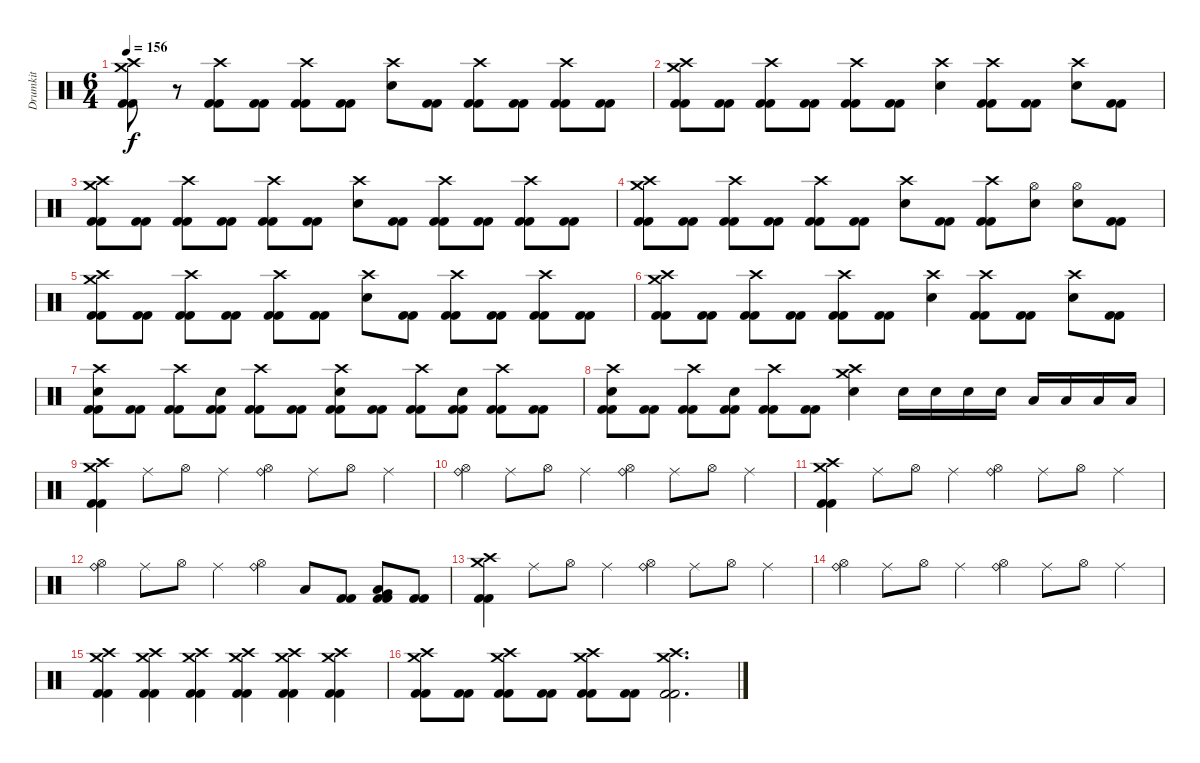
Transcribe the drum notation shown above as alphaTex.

\track ("Drumkit" "Drumkit") {instrument percussion bank 210}
\staff {score}
\articulation defaults
\ts (6 4)
\tempo 156
\clef neutral
\ks c
("Crash medium (hit)" "Crash high (hit)" "Kick (hit) 2" "Kick (hit) 2").8{dy f} r.8 ("Crash high (hit)" "Kick (hit) 2" "Kick (hit) 2").8 ("Kick (hit) 2" "Kick (hit) 2").8 ("Crash high (hit)" "Kick (hit) 2" "Kick (hit) 2").8 ("Kick (hit) 2" "Kick (hit) 2").8 ("Crash high (hit)" "Electric Snare (hit)").8 ("Kick (hit) 2" "Kick (hit) 2").8 ("Crash high (hit)" "Kick (hit) 2" "Kick (hit) 2").8 ("Kick (hit) 2" "Kick (hit) 2").8 ("Crash high (hit)" "Kick (hit) 2" "Kick (hit) 2").8 ("Kick (hit) 2" "Kick (hit) 2").8 |
("Crash medium (hit)" "Crash high (hit)" "Kick (hit) 2" "Kick (hit) 2").8 ("Kick (hit) 2" "Kick (hit) 2").8 ("Crash high (hit)" "Kick (hit) 2" "Kick (hit) 2").8 ("Kick (hit) 2" "Kick (hit) 2").8 ("Crash high (hit)" "Kick (hit) 2" "Kick (hit) 2").8 ("Kick (hit) 2" "Kick (hit) 2").8 ("Crash high (hit)" "Electric Snare (hit)").4 ("Crash high (hit)" "Kick (hit) 2" "Kick (hit) 2").8 ("Kick (hit) 2" "Kick (hit) 2").8 ("Crash high (hit)" "Electric Snare (hit)").8 ("Kick (hit) 2" "Kick (hit) 2").8 |
("Crash medium (hit)" "Crash high (hit)" "Kick (hit) 2" "Kick (hit) 2").8 ("Kick (hit) 2" "Kick (hit) 2").8 ("Crash high (hit)" "Kick (hit) 2" "Kick (hit) 2").8 ("Kick (hit) 2" "Kick (hit) 2").8 ("Crash high (hit)" "Kick (hit) 2" "Kick (hit) 2").8 ("Kick (hit) 2" "Kick (hit) 2").8 ("Crash high (hit)" "Electric Snare (hit)").8 ("Kick (hit) 2" "Kick (hit) 2").8 ("Crash high (hit)" "Kick (hit) 2" "Kick (hit) 2").8 ("Kick (hit) 2" "Kick (hit) 2").8 ("Crash high (hit)" "Kick (hit) 2" "Kick (hit) 2").8 ("Kick (hit) 2" "Kick (hit) 2").8 |
("Crash medium (hit)" "Crash high (hit)" "Kick (hit) 2" "Kick (hit) 2").8 ("Kick (hit) 2" "Kick (hit) 2").8 ("Crash high (hit)" "Kick (hit) 2" "Kick (hit) 2").8 ("Kick (hit) 2" "Kick (hit) 2").8 ("Crash high (hit)" "Kick (hit) 2" "Kick (hit) 2").8 ("Kick (hit) 2" "Kick (hit) 2").8 ("Crash high (hit)" "Electric Snare (hit)").8 ("Kick (hit) 2" "Kick (hit) 2").8 ("Crash high (hit)" "Kick (hit) 2" "Kick (hit) 2").8 ("Hi-Hat (open)" "Electric Snare (hit)").8 ("Hi-Hat (open)" "Electric Snare (hit)").8 ("Kick (hit) 2" "Kick (hit) 2").8 |
("Crash medium (hit)" "Crash high (hit)" "Kick (hit) 2" "Kick (hit) 2").8 ("Kick (hit) 2" "Kick (hit) 2").8 ("Crash high (hit)" "Kick (hit) 2" "Kick (hit) 2").8 ("Kick (hit) 2" "Kick (hit) 2").8 ("Crash high (hit)" "Kick (hit) 2" "Kick (hit) 2").8 ("Kick (hit) 2" "Kick (hit) 2").8 ("Crash high (hit)" "Electric Snare (hit)").8 ("Kick (hit) 2" "Kick (hit) 2").8 ("Crash high (hit)" "Kick (hit) 2" "Kick (hit) 2").8 ("Kick (hit) 2" "Kick (hit) 2").8 ("Crash high (hit)" "Kick (hit) 2" "Kick (hit) 2").8 ("Kick (hit) 2" "Kick (hit) 2").8 |
("Crash medium (hit)" "Crash high (hit)" "Kick (hit) 2" "Kick (hit) 2").8 ("Kick (hit) 2" "Kick (hit) 2").8 ("Crash high (hit)" "Kick (hit) 2" "Kick (hit) 2").8 ("Kick (hit) 2" "Kick (hit) 2").8 ("Crash high (hit)" "Kick (hit) 2" "Kick (hit) 2").8 ("Kick (hit) 2" "Kick (hit) 2").8 ("Crash high (hit)" "Electric Snare (hit)").4 ("Crash high (hit)" "Kick (hit) 2" "Kick (hit) 2").8 ("Kick (hit) 2" "Kick (hit) 2").8 ("Crash high (hit)" "Electric Snare (hit)").8 ("Kick (hit) 2" "Kick (hit) 2").8 |
("Crash high (hit)" "Electric Snare (hit)" "Kick (hit) 2" "Kick (hit) 2").8 ("Kick (hit) 2" "Kick (hit) 2").8 ("Crash high (hit)" "Kick (hit) 2" "Kick (hit) 2").8 ("Electric Snare (hit)" "Kick (hit) 2" "Kick (hit) 2").8 ("Crash high (hit)" "Kick (hit) 2" "Kick (hit) 2").8 ("Kick (hit) 2" "Kick (hit) 2").8 ("Crash high (hit)" "Electric Snare (hit)" "Kick (hit) 2" "Kick (hit) 2").8 ("Kick (hit) 2" "Kick (hit) 2").8 ("Crash high (hit)" "Kick (hit) 2" "Kick (hit) 2").8 ("Electric Snare (hit)" "Kick (hit) 2" "Kick (hit) 2").8 ("Crash high (hit)" "Kick (hit) 2" "Kick (hit) 2").8 ("Kick (hit) 2" "Kick (hit) 2").8 |
("Crash high (hit)" "Electric Snare (hit)" "Kick (hit) 2" "Kick (hit) 2").8 ("Kick (hit) 2" "Kick (hit) 2").8 ("Crash high (hit)" "Kick (hit) 2" "Kick (hit) 2").8 ("Electric Snare (hit)" "Kick (hit) 2" "Kick (hit) 2").8 ("Crash high (hit)" "Kick (hit) 2" "Kick (hit) 2").8 ("Kick (hit) 2" "Kick (hit) 2").8 ("Crash medium (hit)" "Crash high (hit)" "Electric Snare (hit)").4 "Electric Snare (hit)".16 "Electric Snare (hit)".16 "Electric Snare (hit)".16 "Electric Snare (hit)".16 "Low Tom (hit)".16 "Low Tom (hit)".16 "Low Tom (hit)".16 "Low Tom (hit)".16 |
("Crash medium (hit)" "Crash high (hit)" "Kick (hit) 2" "Kick (hit) 2").4 "Ride (middle)".8 "Hi-Hat (open)".8 "Ride (middle)".4 ("Ride (bell)" "Hi-Hat (open)").4 "Ride (middle)".8 "Hi-Hat (open)".8 "Ride (middle)".4 |
("Ride (bell)" "Hi-Hat (open)").4 "Ride (middle)".8 "Hi-Hat (open)".8 "Ride (middle)".4 ("Ride (bell)" "Hi-Hat (open)").4 "Ride (middle)".8 "Hi-Hat (open)".8 "Ride (middle)".4 |
("Crash medium (hit)" "Crash high (hit)" "Kick (hit) 2" "Kick (hit) 2").4 "Ride (middle)".8 "Hi-Hat (open)".8 "Ride (middle)".4 ("Ride (bell)" "Hi-Hat (open)").4 "Ride (middle)".8 "Hi-Hat (open)".8 "Ride (middle)".4 |
("Ride (bell)" "Hi-Hat (open)").4 "Ride (middle)".8 "Hi-Hat (open)".8 "Ride (middle)".4 ("Ride (bell)" "Hi-Hat (open)").4 "Low Tom (hit)".8 ("Kick (hit) 2" "Kick (hit) 2").8 ("Very Low Tom (hit)" "Low Floor Tom (hit)" "Kick (hit) 2" "Kick (hit) 2").8 ("Kick (hit) 2" "Kick (hit) 2").8 |
("Crash medium (hit)" "Crash high (hit)" "Kick (hit) 2" "Kick (hit) 2").4 "Ride (middle)".8 "Hi-Hat (open)".8 "Ride (middle)".4 ("Ride (bell)" "Hi-Hat (open)").4 "Ride (middle)".8 "Hi-Hat (open)".8 "Ride (middle)".4 |
("Ride (bell)" "Hi-Hat (open)").4 "Ride (middle)".8 "Hi-Hat (open)".8 "Ride (middle)".4 ("Ride (bell)" "Hi-Hat (open)").4 "Ride (middle)".8 "Hi-Hat (open)".8 "Ride (middle)".4 |
("Crash medium (hit)" "Crash high (hit)" "Kick (hit) 2" "Kick (hit) 2").4 ("Crash medium (hit)" "Crash high (hit)" "Kick (hit) 2" "Kick (hit) 2").4 ("Crash medium (hit)" "Crash high (hit)" "Kick (hit) 2" "Kick (hit) 2").4 ("Crash medium (hit)" "Crash high (hit)" "Kick (hit) 2" "Kick (hit) 2").4 ("Crash medium (hit)" "Crash high (hit)" "Kick (hit) 2" "Kick (hit) 2").4 ("Crash medium (hit)" "Crash high (hit)" "Kick (hit) 2" "Kick (hit) 2").4 |
("Crash medium (hit)" "Crash high (hit)" "Kick (hit) 2" "Kick (hit) 2").8 ("Kick (hit) 2" "Kick (hit) 2").8 ("Crash medium (hit)" "Crash high (hit)" "Kick (hit) 2" "Kick (hit) 2").8 ("Kick (hit) 2" "Kick (hit) 2").8 ("Crash medium (hit)" "Crash high (hit)" "Kick (hit) 2" "Kick (hit) 2").8 ("Kick (hit) 2" "Kick (hit) 2").8 ("Crash medium (hit)" "Crash high (hit)" "Kick (hit) 2" "Kick (hit) 2").2{d}
